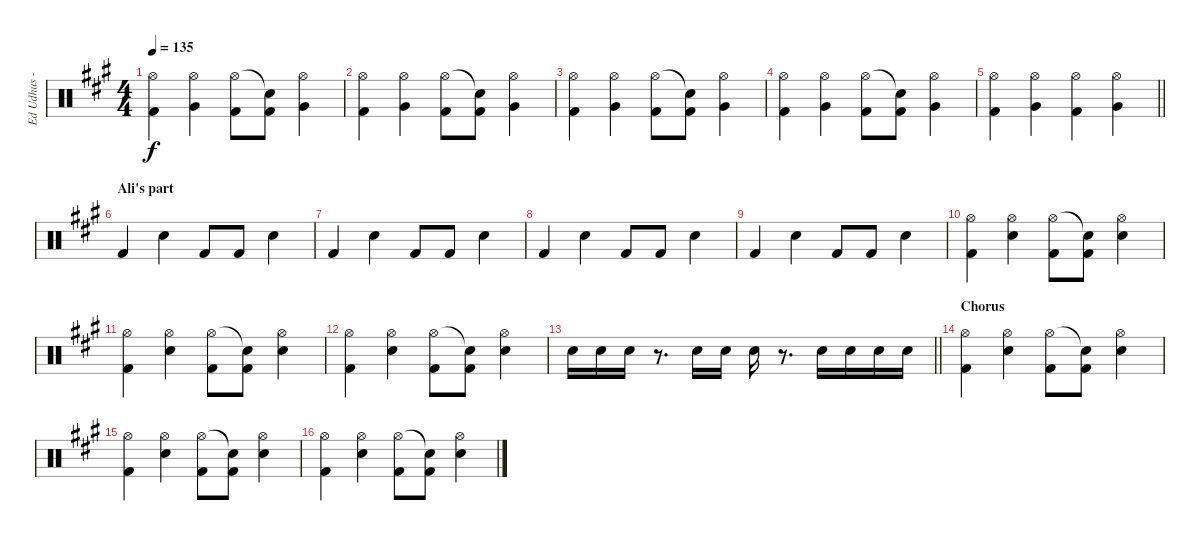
\track ("Ed Udhus - Drums" "Ed Udhus -") {instrument percussion bank 127}
\staff {score}
\articulation defaults
\ts (4 4)
\tempo 135
\clef neutral
\ks a
("Hi-Hat (open)" "Kick (hit) 2").4{dy f} ("Hi-Hat (open)" "Very Low Tom (hit)").4 ("Hi-Hat (open)" "Kick (hit) 2").8 ("Snare (hit)"{t} "Kick (hit) 2").8 ("Hi-Hat (open)" "Very Low Tom (hit)").4 |
("Hi-Hat (open)" "Kick (hit) 2").4 ("Hi-Hat (open)" "Very Low Tom (hit)").4 ("Hi-Hat (open)" "Kick (hit) 2").8 ("Snare (hit)"{t} "Kick (hit) 2").8 ("Hi-Hat (open)" "Very Low Tom (hit)").4 |
("Hi-Hat (open)" "Kick (hit) 2").4 ("Hi-Hat (open)" "Very Low Tom (hit)").4 ("Hi-Hat (open)" "Kick (hit) 2").8 ("Snare (hit)"{t} "Kick (hit) 2").8 ("Hi-Hat (open)" "Very Low Tom (hit)").4 |
("Hi-Hat (open)" "Kick (hit) 2").4 ("Hi-Hat (open)" "Very Low Tom (hit)").4 ("Hi-Hat (open)" "Kick (hit) 2").8 ("Snare (hit)"{t} "Kick (hit) 2").8 ("Hi-Hat (open)" "Very Low Tom (hit)").4 |
\barLineRight lightlight
("Hi-Hat (open)" "Kick (hit) 2").4{volume 16} ("Hi-Hat (open)" "Very Low Tom (hit)").4 ("Hi-Hat (open)" "Kick (hit) 2").4 ("Hi-Hat (open)" "Very Low Tom (hit)").4 |
\section ("" "Ali's part")
"Kick (hit) 2".4{volume 11} "Snare (hit) 2".4 "Kick (hit) 2".8 "Kick (hit) 2".8 "Snare (hit) 2".4 |
"Kick (hit) 2".4 "Snare (hit) 2".4 "Kick (hit) 2".8 "Kick (hit) 2".8 "Snare (hit) 2".4 |
"Kick (hit) 2".4 "Snare (hit) 2".4 "Kick (hit) 2".8 "Kick (hit) 2".8 "Snare (hit) 2".4 |
"Kick (hit) 2".4 "Snare (hit) 2".4 "Kick (hit) 2".8 "Kick (hit) 2".8 "Snare (hit) 2".4 |
("Hi-Hat (open)" "Kick (hit) 2").4 ("Hi-Hat (open)" "Snare (hit) 2").4 ("Hi-Hat (open)" "Kick (hit) 2").8 ("Snare (hit)"{t} "Kick (hit) 2").8 ("Hi-Hat (open)" "Snare (hit) 2").4 |
("Hi-Hat (open)" "Kick (hit) 2").4 ("Hi-Hat (open)" "Snare (hit) 2").4 ("Hi-Hat (open)" "Kick (hit) 2").8 ("Snare (hit)"{t} "Kick (hit) 2").8 ("Hi-Hat (open)" "Snare (hit) 2").4 |
("Hi-Hat (open)" "Kick (hit) 2").4 ("Hi-Hat (open)" "Snare (hit) 2").4 ("Hi-Hat (open)" "Kick (hit) 2").8 ("Snare (hit)"{t} "Kick (hit) 2").8 ("Hi-Hat (open)" "Snare (hit) 2").4 |
\barLineRight lightlight "Snare (hit) 2".16 "Snare (hit) 2".16 "Snare (hit) 2".16
r.8{d} "Snare (hit) 2".16 "Snare (hit) 2".16 "Snare (hit) 2".16 r.8{d} "Snare (hit) 2".16 "Snare (hit) 2".16 "Snare (hit) 2".16 "Snare (hit) 2".16 |
\section ("" "Chorus")
("Hi-Hat (open)" "Kick (hit) 2").4 ("Hi-Hat (open)" "Snare (hit) 2").4 ("Hi-Hat (open)" "Kick (hit) 2").8 ("Snare (hit)"{t} "Kick (hit) 2").8 ("Hi-Hat (open)" "Snare (hit) 2").4 |
("Hi-Hat (open)" "Kick (hit) 2").4 ("Hi-Hat (open)" "Snare (hit) 2").4 ("Hi-Hat (open)" "Kick (hit) 2").8 ("Snare (hit)"{t} "Kick (hit) 2").8 ("Hi-Hat (open)" "Snare (hit) 2").4 |
("Hi-Hat (open)" "Kick (hit) 2").4 ("Hi-Hat (open)" "Snare (hit) 2").4 ("Hi-Hat (open)" "Kick (hit) 2").8 ("Snare (hit)"{t} "Kick (hit) 2").8 ("Hi-Hat (open)" "Snare (hit) 2").4
